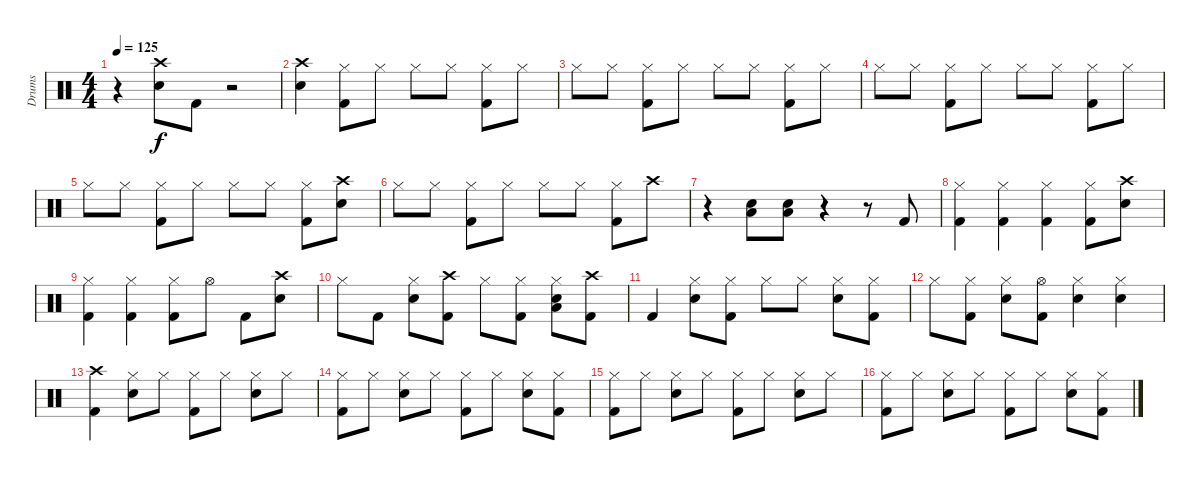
\track ("Drums" "Drums") {instrument percussion}
\staff {score}
\articulation defaults
\ts (4 4)
\tempo 125
\clef neutral
\ks c
r.4{dy f} ("Crash high (hit)" "Electric Snare (hit)").8 "Kick (hit) 2".8 r.2 |
("Crash high (hit)" "Electric Snare (hit)").4 ("Hi-Hat (closed)" "Kick (hit) 2").8 "Hi-Hat (closed)".8 "Hi-Hat (closed)".8 "Hi-Hat (closed)".8 ("Hi-Hat (closed)" "Kick (hit) 2").8 "Hi-Hat (closed)".8 |
"Hi-Hat (closed)".8 "Hi-Hat (closed)".8 ("Hi-Hat (closed)" "Kick (hit) 2").8 "Hi-Hat (closed)".8 "Hi-Hat (closed)".8 "Hi-Hat (closed)".8 ("Hi-Hat (closed)" "Kick (hit) 2").8 "Hi-Hat (closed)".8 |
"Hi-Hat (closed)".8 "Hi-Hat (closed)".8 ("Hi-Hat (closed)" "Kick (hit) 2").8 "Hi-Hat (closed)".8 "Hi-Hat (closed)".8 "Hi-Hat (closed)".8 ("Hi-Hat (closed)" "Kick (hit) 2").8 "Hi-Hat (closed)".8 |
"Hi-Hat (closed)".8 "Hi-Hat (closed)".8 ("Hi-Hat (closed)" "Kick (hit) 2").8 "Hi-Hat (closed)".8 "Hi-Hat (closed)".8 "Hi-Hat (closed)".8 ("Hi-Hat (closed)" "Kick (hit) 2").8 ("Crash high (hit)" "Electric Snare (hit)").8 |
"Hi-Hat (closed)".8 "Hi-Hat (closed)".8 ("Hi-Hat (closed)" "Kick (hit) 2").8 "Hi-Hat (closed)".8 "Hi-Hat (closed)".8 "Hi-Hat (closed)".8 ("Hi-Hat (closed)" "Kick (hit) 2").8 "Crash high (hit)".8 |
r.4 ("Low Tom (hit)" "Electric Snare (hit)").8 ("Low Tom (hit)" "Electric Snare (hit)").8 r.4 r.8 "Kick (hit) 2".8 |
("Hi-Hat (closed)" "Kick (hit) 2").4 ("Hi-Hat (closed)" "Kick (hit) 2").4 ("Hi-Hat (closed)" "Kick (hit) 2").4 ("Hi-Hat (closed)" "Kick (hit) 2").8 ("Crash high (hit)" "Electric Snare (hit)").8 |
("Hi-Hat (closed)" "Kick (hit) 2").4 ("Hi-Hat (closed)" "Kick (hit) 2").4 ("Hi-Hat (closed)" "Kick (hit) 2").8 "Hi-Hat (open)".8 "Kick (hit) 2".8 ("Crash high (hit)" "Electric Snare (hit)").8 |
"Hi-Hat (closed)".8 "Kick (hit) 2".8 ("Hi-Hat (closed)" "Electric Snare (hit)").8 ("Crash high (hit)" "Kick (hit) 2").8 "Hi-Hat (closed)".8 ("Hi-Hat (closed)" "Kick (hit) 2").8 ("Hi-Hat (closed)" "Low Tom (hit)" "Electric Snare (hit)").8 ("Crash high (hit)" "Kick (hit) 2").8 |
"Kick (hit) 2".4 ("Hi-Hat (closed)" "Electric Snare (hit)").8 ("Hi-Hat (closed)" "Kick (hit) 2").8 "Hi-Hat (closed)".8 "Hi-Hat (closed)".8 ("Hi-Hat (closed)" "Electric Snare (hit)").8 ("Hi-Hat (closed)" "Kick (hit) 2").8 |
"Hi-Hat (closed)".8 ("Hi-Hat (closed)" "Kick (hit) 2").8 ("Hi-Hat (closed)" "Electric Snare (hit)").8 ("Hi-Hat (open)" "Kick (hit) 2").8 ("Hi-Hat (closed)" "Electric Snare (hit)").4 ("Hi-Hat (closed)" "Electric Snare (hit)").4 |
("Crash high (hit)" "Kick (hit) 2").4 ("Hi-Hat (closed)" "Electric Snare (hit)").8 "Hi-Hat (closed)".8 ("Hi-Hat (closed)" "Kick (hit) 2").8 "Hi-Hat (closed)".8 ("Hi-Hat (closed)" "Electric Snare (hit)").8 "Hi-Hat (closed)".8 |
("Hi-Hat (closed)" "Kick (hit) 2").8 "Hi-Hat (closed)".8 ("Hi-Hat (closed)" "Electric Snare (hit)").8 "Hi-Hat (closed)".8 ("Hi-Hat (closed)" "Kick (hit) 2").8 "Hi-Hat (closed)".8 ("Hi-Hat (closed)" "Electric Snare (hit)").8 ("Hi-Hat (closed)" "Kick (hit) 2").8 |
("Hi-Hat (closed)" "Kick (hit) 2").8 "Hi-Hat (closed)".8 ("Hi-Hat (closed)" "Electric Snare (hit)").8 "Hi-Hat (closed)".8 ("Hi-Hat (closed)" "Kick (hit) 2").8 "Hi-Hat (closed)".8 ("Hi-Hat (closed)" "Electric Snare (hit)").8 "Hi-Hat (closed)".8 |
("Hi-Hat (closed)" "Kick (hit) 2").8 "Hi-Hat (closed)".8 ("Hi-Hat (closed)" "Electric Snare (hit)").8 "Hi-Hat (closed)".8 ("Hi-Hat (closed)" "Kick (hit) 2").8 "Hi-Hat (closed)".8 ("Hi-Hat (closed)" "Electric Snare (hit)").8 ("Hi-Hat (closed)" "Kick (hit) 2").8
